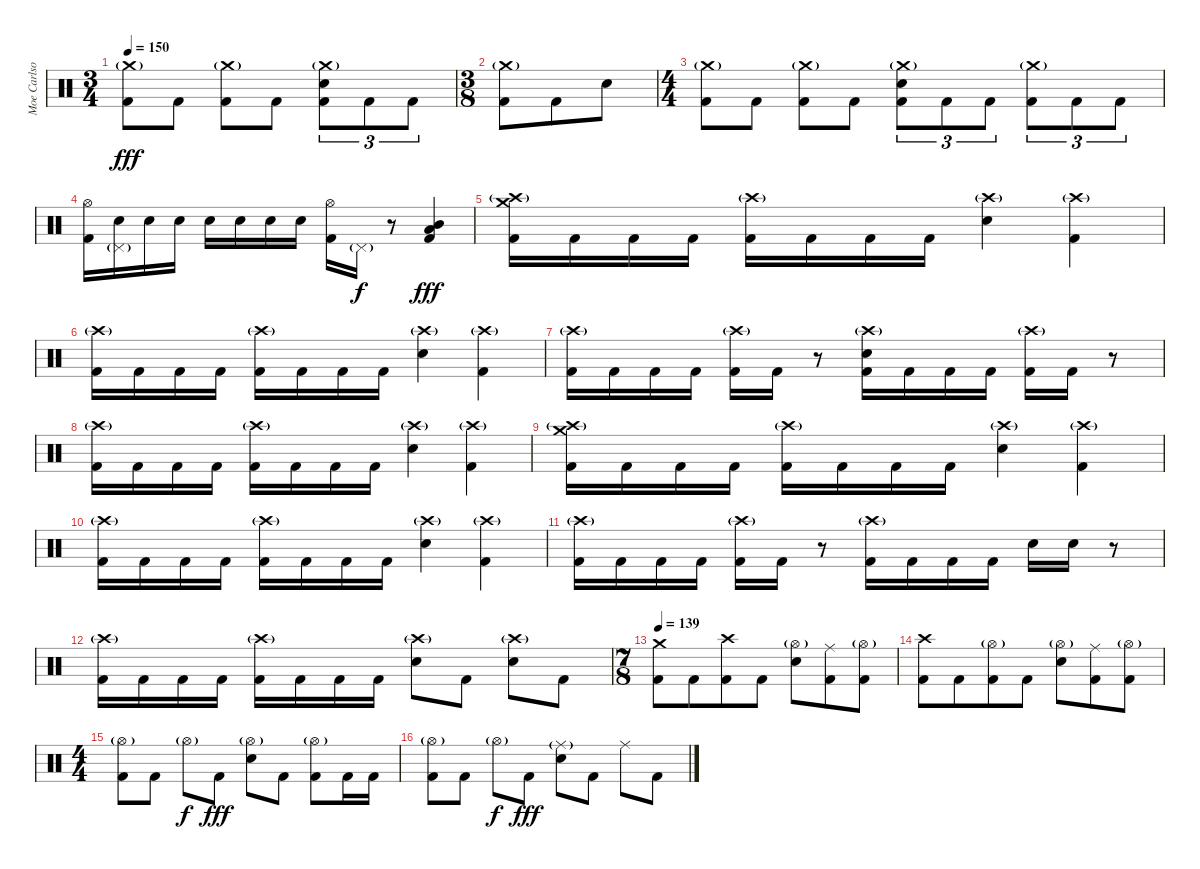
\track ("Moe Carlson" "Moe Carlso") {instrument percussion}
\staff {score}
\articulation defaults
\ts (3 4)
\tempo 150
\clef neutral
\ks c
("Crash medium (hit)"{g} "Kick (hit) 2").8{dy fff} "Kick (hit) 2".8 ("Crash medium (hit)"{g} "Kick (hit) 2").8 "Kick (hit) 2".8 ("Crash medium (hit)"{g} "Electric Snare (hit)" "Kick (hit) 2").8{tu (3 2)} "Kick (hit) 2".8{tu (3 2)} "Kick (hit) 2".8{tu (3 2)} |
\ts (3 8)
("Crash medium (hit)"{g} "Kick (hit) 2").8 "Kick (hit) 2".8 "Electric Snare (hit)".8 |
\ts (4 4)
("Crash medium (hit)"{g} "Kick (hit) 2").8 "Kick (hit) 2".8 ("Crash medium (hit)"{g} "Kick (hit) 2").8 "Kick (hit) 2".8 ("Crash medium (hit)"{g} "Electric Snare (hit)" "Kick (hit) 2").8{tu (3 2)} "Kick (hit) 2".8{tu (3 2)} "Kick (hit) 2".8{tu (3 2)} ("Crash medium (hit)"{g} "Kick (hit) 2").8{tu (3 2)} "Kick (hit) 2".8{tu (3 2)} "Kick (hit) 2".8{tu (3 2)} |
("Hi-Hat (open)" "Kick (hit) 2").16 ("Electric Snare (hit)" "Pedal Hi-Hat (hit)"{g}).16 "Electric Snare (hit)".16 "Electric Snare (hit)".16 "Electric Snare (hit)".16 "Electric Snare (hit)".16 "Electric Snare (hit)".16 "Electric Snare (hit)".16 ("Hi-Hat (open)" "Kick (hit) 2").16 "Pedal Hi-Hat (hit)"{g}.16{dy f} r.8 ("Mid Tom (hit)" "Low Tom (hit)" "Kick (hit) 2").4{dy fff} |
("Crash high (hit)"{g} "Crash medium (hit)" "Kick (hit) 2").16 "Kick (hit) 2".16 "Kick (hit) 2".16 "Kick (hit) 2".16 ("Crash high (hit)"{g} "Kick (hit) 2").16 "Kick (hit) 2".16 "Kick (hit) 2".16 "Kick (hit) 2".16 ("Crash high (hit)"{g} "Electric Snare (hit)").4 ("Crash high (hit)"{g} "Kick (hit) 2").4 |
("Crash high (hit)"{g} "Kick (hit) 2").16 "Kick (hit) 2".16 "Kick (hit) 2".16 "Kick (hit) 2".16 ("Crash high (hit)"{g} "Kick (hit) 2").16 "Kick (hit) 2".16 "Kick (hit) 2".16 "Kick (hit) 2".16 ("Crash high (hit)"{g} "Electric Snare (hit)").4 ("Crash high (hit)"{g} "Kick (hit) 2").4 |
("Crash high (hit)"{g} "Kick (hit) 2").16 "Kick (hit) 2".16 "Kick (hit) 2".16 "Kick (hit) 2".16 ("Crash high (hit)"{g} "Kick (hit) 2").16 "Kick (hit) 2".16 r.8 ("Crash high (hit)"{g} "Electric Snare (hit)" "Kick (hit) 2").16 "Kick (hit) 2".16 "Kick (hit) 2".16 "Kick (hit) 2".16 ("Crash high (hit)"{g} "Kick (hit) 2").16 "Kick (hit) 2".16 r.8 |
("Crash high (hit)"{g} "Kick (hit) 2").16 "Kick (hit) 2".16 "Kick (hit) 2".16 "Kick (hit) 2".16 ("Crash high (hit)"{g} "Kick (hit) 2").16 "Kick (hit) 2".16 "Kick (hit) 2".16 "Kick (hit) 2".16 ("Crash high (hit)"{g} "Electric Snare (hit)").4 ("Crash high (hit)"{g} "Kick (hit) 2").4 |
("Crash high (hit)"{g} "Crash medium (hit)" "Kick (hit) 2").16 "Kick (hit) 2".16 "Kick (hit) 2".16 "Kick (hit) 2".16 ("Crash high (hit)"{g} "Kick (hit) 2").16 "Kick (hit) 2".16 "Kick (hit) 2".16 "Kick (hit) 2".16 ("Crash high (hit)"{g} "Electric Snare (hit)").4 ("Crash high (hit)"{g} "Kick (hit) 2").4 |
("Crash high (hit)"{g} "Kick (hit) 2").16 "Kick (hit) 2".16 "Kick (hit) 2".16 "Kick (hit) 2".16 ("Crash high (hit)"{g} "Kick (hit) 2").16 "Kick (hit) 2".16 "Kick (hit) 2".16 "Kick (hit) 2".16 ("Crash high (hit)"{g} "Electric Snare (hit)").4 ("Crash high (hit)"{g} "Kick (hit) 2").4 |
("Crash high (hit)"{g} "Kick (hit) 2").16 "Kick (hit) 2".16 "Kick (hit) 2".16 "Kick (hit) 2".16 ("Crash high (hit)"{g} "Kick (hit) 2").16 "Kick (hit) 2".16 r.8 ("Crash high (hit)"{g} "Kick (hit) 2").16 "Kick (hit) 2".16 "Kick (hit) 2".16 "Kick (hit) 2".16 "Electric Snare (hit)".16 "Electric Snare (hit)".16 r.8 |
("Crash high (hit)"{g} "Kick (hit) 2").16 "Kick (hit) 2".16 "Kick (hit) 2".16 "Kick (hit) 2".16 ("Crash high (hit)"{g} "Kick (hit) 2").16 "Kick (hit) 2".16 "Kick (hit) 2".16 "Kick (hit) 2".16 ("Crash high (hit)"{g} "Electric Snare (hit)").8 "Kick (hit) 2".8 ("Crash high (hit)"{g} "Electric Snare (hit)").8 "Kick (hit) 2".8 |
\ts (7 8)
\tempo 139
("Crash medium (hit)" "Kick (hit) 2").8 "Kick (hit) 2".8 ("Crash high (hit)" "Kick (hit) 2").8 "Kick (hit) 2".8 ("Hi-Hat (open)"{g} "Electric Snare (hit)").8 ("Ride (middle)" "Kick (hit) 2").8 ("Hi-Hat (open)"{g} "Kick (hit) 2").8 |
("Crash high (hit)" "Kick (hit) 2").8 "Kick (hit) 2".8 ("Hi-Hat (open)"{g} "Kick (hit) 2").8 "Kick (hit) 2".8 ("Hi-Hat (open)"{g} "Electric Snare (hit)").8 ("Ride (middle)" "Kick (hit) 2").8 ("Hi-Hat (open)"{g} "Kick (hit) 2").8 |
\ts (4 4)
("Hi-Hat (open)"{g} "Kick (hit) 2").8 "Kick (hit) 2".8 "Hi-Hat (open)"{g}.8{dy f} "Kick (hit) 2".8{dy fff} ("Hi-Hat (open)"{g} "Electric Snare (hit)").8 "Kick (hit) 2".8 ("Hi-Hat (open)"{g} "Kick (hit) 2").8 "Kick (hit) 2".16 "Kick (hit) 2".16 |
("Hi-Hat (open)"{g} "Kick (hit) 2").8 "Kick (hit) 2".8 "Hi-Hat (open)"{g}.8{dy f} "Kick (hit) 2".8{dy fff} ("Ride (middle)"{g} "Electric Snare (hit)").8 "Kick (hit) 2".8 "Ride (middle)".8 "Kick (hit) 2".8
